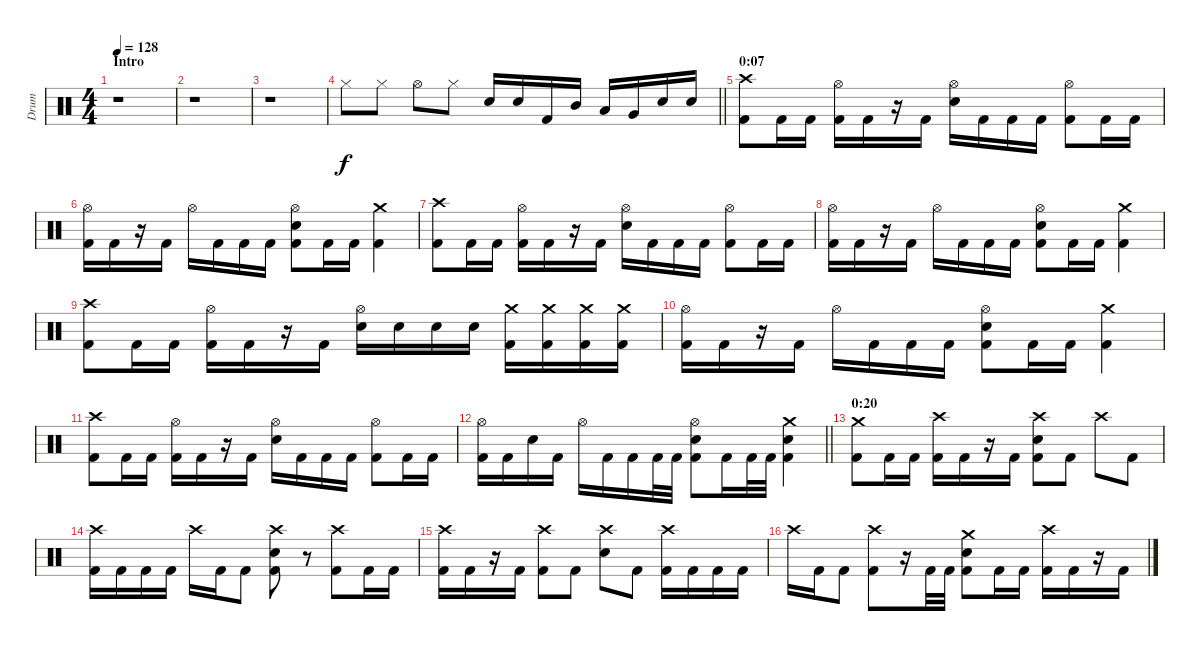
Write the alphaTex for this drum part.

\track ("Drum" "Drum") {instrument percussion}
\staff {score}
\articulation defaults
\ts (4 4)
\section ("" "Intro")
\tempo 128
\clef neutral
\ks c
r.1{dy f} |
r.1 |
r.1 |
\barLineRight lightlight "Hi-Hat (closed)".8 "Hi-Hat (closed)".8 "Hi-Hat (open)".8 "Hi-Hat (closed)".8 "Electric Snare (hit)".16 "Electric Snare (hit)".16 "Kick (hit) 2".16 "Mid Tom (hit)".16 "Low Tom (hit)".16 "Very Low Tom (hit)".16 "Electric Snare (hit)".16 "Electric Snare (hit)".16
|
\section ("" "0:07")
("Crash high (hit)" "Kick (hit) 2").8 "Kick (hit) 2".16 "Kick (hit) 2".16 ("Hi-Hat (open)" "Kick (hit) 2").16 "Kick (hit) 2".16 r.16 "Kick (hit) 2".16 ("Hi-Hat (open)" "Electric Snare (hit)").16 "Kick (hit) 2".16 "Kick (hit) 2".16 "Kick (hit) 2".16 ("Hi-Hat (open)" "Kick (hit) 2").8 "Kick (hit) 2".16 "Kick (hit) 2".16 |
("Hi-Hat (open)" "Kick (hit) 2").16 "Kick (hit) 2".16 r.16 "Kick (hit) 2".16 "Hi-Hat (open)".16 "Kick (hit) 2".16 "Kick (hit) 2".16 "Kick (hit) 2".16 ("Hi-Hat (open)" "Electric Snare (hit)" "Kick (hit) 2").8 "Kick (hit) 2".16 "Kick (hit) 2".16 ("Crash medium (hit)" "Kick (hit) 2").4 |
("Crash high (hit)" "Kick (hit) 2").8 "Kick (hit) 2".16 "Kick (hit) 2".16 ("Hi-Hat (open)" "Kick (hit) 2").16 "Kick (hit) 2".16 r.16 "Kick (hit) 2".16 ("Hi-Hat (open)" "Electric Snare (hit)").16 "Kick (hit) 2".16 "Kick (hit) 2".16 "Kick (hit) 2".16 ("Hi-Hat (open)" "Kick (hit) 2").8 "Kick (hit) 2".16 "Kick (hit) 2".16 |
("Hi-Hat (open)" "Kick (hit) 2").16 "Kick (hit) 2".16 r.16 "Kick (hit) 2".16 "Hi-Hat (open)".16 "Kick (hit) 2".16 "Kick (hit) 2".16 "Kick (hit) 2".16 ("Hi-Hat (open)" "Electric Snare (hit)" "Kick (hit) 2").8 "Kick (hit) 2".16 "Kick (hit) 2".16 ("Crash medium (hit)" "Kick (hit) 2").4 |
("Crash high (hit)" "Kick (hit) 2").8 "Kick (hit) 2".16 "Kick (hit) 2".16 ("Hi-Hat (open)" "Kick (hit) 2").16 "Kick (hit) 2".16 r.16 "Kick (hit) 2".16 ("Hi-Hat (open)" "Electric Snare (hit)").16 "Electric Snare (hit)".16 "Electric Snare (hit)".16 "Electric Snare (hit)".16 ("Crash medium (hit)" "Kick (hit) 2").16 ("Crash medium (hit)" "Kick (hit) 2").16 ("Crash medium (hit)" "Kick (hit) 2").16 ("Crash medium (hit)" "Kick (hit) 2").16 |
("Hi-Hat (open)" "Kick (hit) 2").16 "Kick (hit) 2".16 r.16 "Kick (hit) 2".16 "Hi-Hat (open)".16 "Kick (hit) 2".16 "Kick (hit) 2".16 "Kick (hit) 2".16 ("Hi-Hat (open)" "Electric Snare (hit)" "Kick (hit) 2").8 "Kick (hit) 2".16 "Kick (hit) 2".16 ("Crash medium (hit)" "Kick (hit) 2").4 |
("Crash high (hit)" "Kick (hit) 2").8 "Kick (hit) 2".16 "Kick (hit) 2".16 ("Hi-Hat (open)" "Kick (hit) 2").16 "Kick (hit) 2".16 r.16 "Kick (hit) 2".16 ("Hi-Hat (open)" "Electric Snare (hit)").16 "Kick (hit) 2".16 "Kick (hit) 2".16 "Kick (hit) 2".16 ("Hi-Hat (open)" "Kick (hit) 2").8 "Kick (hit) 2".16 "Kick (hit) 2".16 |
\barLineRight lightlight
("Hi-Hat (open)" "Kick (hit) 2").16 "Kick (hit) 2".16 "Electric Snare (hit)".16 "Kick (hit) 2".16 "Hi-Hat (open)".16 "Kick (hit) 2".16 "Kick (hit) 2".16 "Kick (hit) 2".32 "Kick (hit) 2".32 ("Hi-Hat (open)" "Electric Snare (hit)" "Kick (hit) 2").8 "Kick (hit) 2".16 "Kick (hit) 2".32 "Kick (hit) 2".32 ("Crash medium (hit)" "Electric Snare (hit)" "Kick (hit) 2").4 |
\section ("" "0:20")
("Crash medium (hit)" "Kick (hit) 2").8 "Kick (hit) 2".16 "Kick (hit) 2".16 ("Crash high (hit)" "Kick (hit) 2").16 "Kick (hit) 2".16 r.16 "Kick (hit) 2".16 ("Crash high (hit)" "Electric Snare (hit)" "Kick (hit) 2").8 "Kick (hit) 2".8 "Crash high (hit)".8 "Kick (hit) 2".8 |
("Crash high (hit)" "Kick (hit) 2").16 "Kick (hit) 2".16 "Kick (hit) 2".16 "Kick (hit) 2".16 "Crash high (hit)".16 "Kick (hit) 2".16 "Kick (hit) 2".8 ("Crash high (hit)" "Electric Snare (hit)" "Kick (hit) 2").8 r.8 ("Crash high (hit)" "Kick (hit) 2").8 "Kick (hit) 2".16 "Kick (hit) 2".16 |
("Crash high (hit)" "Kick (hit) 2").16 "Kick (hit) 2".16 r.16 "Kick (hit) 2".16 ("Crash high (hit)" "Kick (hit) 2").8 "Kick (hit) 2".8 ("Crash high (hit)" "Electric Snare (hit)").8 "Kick (hit) 2".8 ("Crash high (hit)" "Kick (hit) 2").16 "Kick (hit) 2".16 "Kick (hit) 2".16 "Kick (hit) 2".16 |
"Crash high (hit)".16 "Kick (hit) 2".16 "Kick (hit) 2".8 ("Crash high (hit)" "Kick (hit) 2").8 r.16 "Kick (hit) 2".32 "Kick (hit) 2".32 ("Crash medium (hit)" "Electric Snare (hit)" "Kick (hit) 2").8 "Kick (hit) 2".16 "Kick (hit) 2".16 ("Crash high (hit)" "Kick (hit) 2").16 "Kick (hit) 2".16 r.16 "Kick (hit) 2".16
